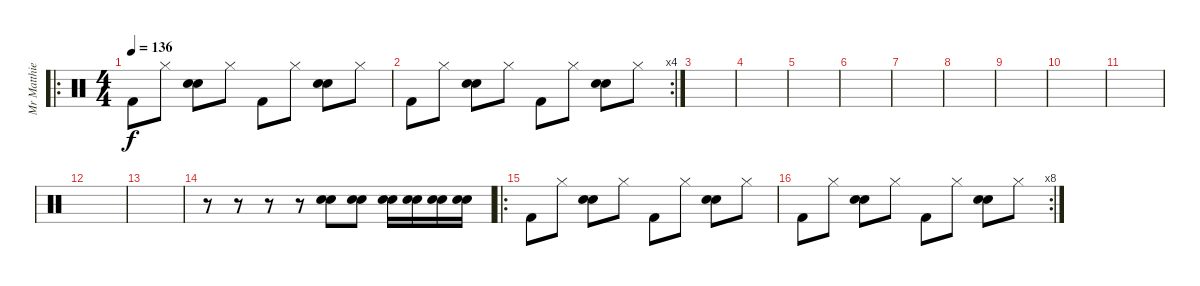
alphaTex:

\track ("Mr Matthieu (Batterie)" "Mr Matthie") {instrument percussion}
\staff {score}
\articulation defaults
\ro
\ts (4 4)
\tempo 136
\clef neutral
\ks c "Kick (hit) 2".8{dy f} "Hi-Hat (closed)".8
("Electric Snare (hit)" "Snare (hit) 2").8 "Hi-Hat (closed)".8 "Kick (hit) 2".8 "Hi-Hat (closed)".8 ("Electric Snare (hit)" "Snare (hit) 2").8 "Hi-Hat (closed)".8 |
\rc 4 "Kick (hit) 2".8 "Hi-Hat (closed)".8
("Electric Snare (hit)" "Snare (hit) 2").8 "Hi-Hat (closed)".8 "Kick (hit) 2".8 "Hi-Hat (closed)".8 ("Electric Snare (hit)" "Snare (hit) 2").8 "Hi-Hat (closed)".8 |
|
|
|
|
|
|
|
|
|
|
|
r.8 r.8 r.8 r.8 ("Electric Snare (hit)" "Snare (hit) 2").8 ("Electric Snare (hit)" "Snare (hit) 2").8 ("Electric Snare (hit)" "Snare (hit) 2").16 ("Electric Snare (hit)" "Snare (hit) 2").16 ("Electric Snare (hit)" "Snare (hit) 2").16 ("Electric Snare (hit)" "Snare (hit) 2").16 |
\ro "Kick (hit) 2".8 "Hi-Hat (closed)".8
("Electric Snare (hit)" "Snare (hit) 2").8 "Hi-Hat (closed)".8 "Kick (hit) 2".8 "Hi-Hat (closed)".8 ("Electric Snare (hit)" "Snare (hit) 2").8 "Hi-Hat (closed)".8 |
\rc 8 "Kick (hit) 2".8 "Hi-Hat (closed)".8
("Electric Snare (hit)" "Snare (hit) 2").8 "Hi-Hat (closed)".8 "Kick (hit) 2".8 "Hi-Hat (closed)".8 ("Electric Snare (hit)" "Snare (hit) 2").8 "Hi-Hat (closed)".8
